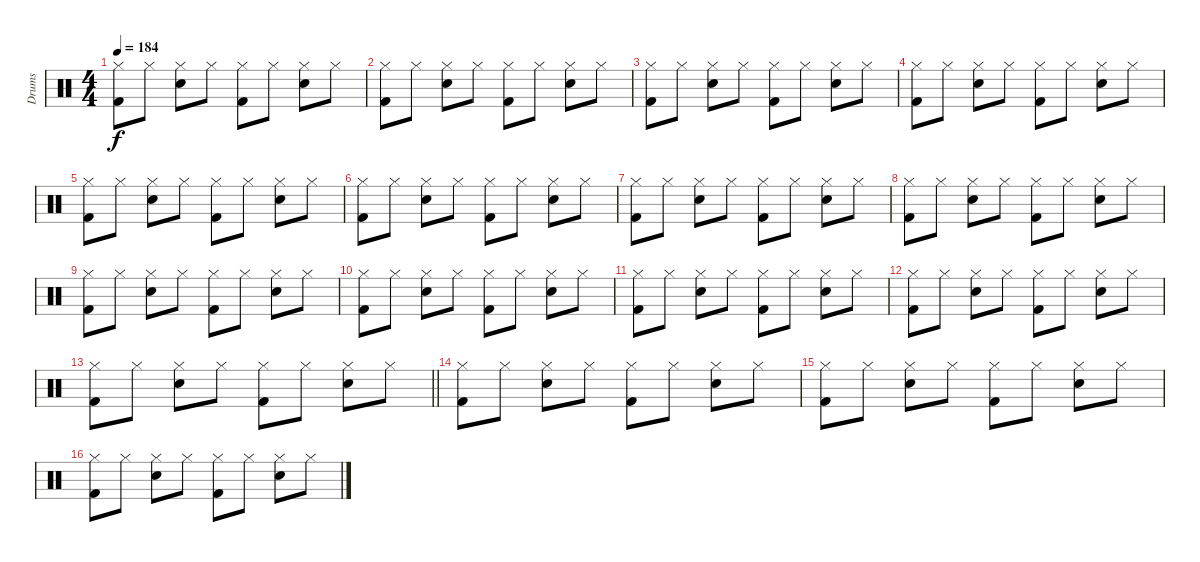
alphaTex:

\track ("Drums" "Drums") {instrument percussion}
\staff {score}
\articulation defaults
\ts (4 4)
\tempo 184
\clef neutral
\ks c
("Hi-Hat (closed)" "Kick (hit) 2").8{dy f} "Hi-Hat (closed)".8 ("Hi-Hat (closed)" "Snare (hit) 2").8 "Hi-Hat (closed)".8 ("Hi-Hat (closed)" "Kick (hit) 2").8 "Hi-Hat (closed)".8 ("Hi-Hat (closed)" "Snare (hit) 2").8 "Hi-Hat (closed)".8 |
("Hi-Hat (closed)" "Kick (hit) 2").8 "Hi-Hat (closed)".8 ("Hi-Hat (closed)" "Snare (hit) 2").8 "Hi-Hat (closed)".8 ("Hi-Hat (closed)" "Kick (hit) 2").8 "Hi-Hat (closed)".8 ("Hi-Hat (closed)" "Snare (hit) 2").8 "Hi-Hat (closed)".8 |
("Hi-Hat (closed)" "Kick (hit) 2").8 "Hi-Hat (closed)".8 ("Hi-Hat (closed)" "Snare (hit) 2").8 "Hi-Hat (closed)".8 ("Hi-Hat (closed)" "Kick (hit) 2").8 "Hi-Hat (closed)".8 ("Hi-Hat (closed)" "Snare (hit) 2").8 "Hi-Hat (closed)".8 |
("Hi-Hat (closed)" "Kick (hit) 2").8 "Hi-Hat (closed)".8 ("Hi-Hat (closed)" "Snare (hit) 2").8 "Hi-Hat (closed)".8 ("Hi-Hat (closed)" "Kick (hit) 2").8 "Hi-Hat (closed)".8 ("Hi-Hat (closed)" "Snare (hit) 2").8 "Hi-Hat (closed)".8 |
("Hi-Hat (closed)" "Kick (hit) 2").8 "Hi-Hat (closed)".8 ("Hi-Hat (closed)" "Snare (hit) 2").8 "Hi-Hat (closed)".8 ("Hi-Hat (closed)" "Kick (hit) 2").8 "Hi-Hat (closed)".8 ("Hi-Hat (closed)" "Snare (hit) 2").8 "Hi-Hat (closed)".8 |
("Hi-Hat (closed)" "Kick (hit) 2").8 "Hi-Hat (closed)".8 ("Hi-Hat (closed)" "Snare (hit) 2").8 "Hi-Hat (closed)".8 ("Hi-Hat (closed)" "Kick (hit) 2").8 "Hi-Hat (closed)".8 ("Hi-Hat (closed)" "Snare (hit) 2").8 "Hi-Hat (closed)".8 |
("Hi-Hat (closed)" "Kick (hit) 2").8 "Hi-Hat (closed)".8 ("Hi-Hat (closed)" "Snare (hit) 2").8 "Hi-Hat (closed)".8 ("Hi-Hat (closed)" "Kick (hit) 2").8 "Hi-Hat (closed)".8 ("Hi-Hat (closed)" "Snare (hit) 2").8 "Hi-Hat (closed)".8 |
("Hi-Hat (closed)" "Kick (hit) 2").8 "Hi-Hat (closed)".8 ("Hi-Hat (closed)" "Snare (hit) 2").8 "Hi-Hat (closed)".8 ("Hi-Hat (closed)" "Kick (hit) 2").8 "Hi-Hat (closed)".8 ("Hi-Hat (closed)" "Snare (hit) 2").8 "Hi-Hat (closed)".8 |
("Hi-Hat (closed)" "Kick (hit) 2").8 "Hi-Hat (closed)".8 ("Hi-Hat (closed)" "Snare (hit) 2").8 "Hi-Hat (closed)".8 ("Hi-Hat (closed)" "Kick (hit) 2").8 "Hi-Hat (closed)".8 ("Hi-Hat (closed)" "Snare (hit) 2").8 "Hi-Hat (closed)".8 |
("Hi-Hat (closed)" "Kick (hit) 2").8 "Hi-Hat (closed)".8 ("Hi-Hat (closed)" "Snare (hit) 2").8 "Hi-Hat (closed)".8 ("Hi-Hat (closed)" "Kick (hit) 2").8 "Hi-Hat (closed)".8 ("Hi-Hat (closed)" "Snare (hit) 2").8 "Hi-Hat (closed)".8 |
("Hi-Hat (closed)" "Kick (hit) 2").8 "Hi-Hat (closed)".8 ("Hi-Hat (closed)" "Snare (hit) 2").8 "Hi-Hat (closed)".8 ("Hi-Hat (closed)" "Kick (hit) 2").8 "Hi-Hat (closed)".8 ("Hi-Hat (closed)" "Snare (hit) 2").8 "Hi-Hat (closed)".8 |
("Hi-Hat (closed)" "Kick (hit) 2").8 "Hi-Hat (closed)".8 ("Hi-Hat (closed)" "Snare (hit) 2").8 "Hi-Hat (closed)".8 ("Hi-Hat (closed)" "Kick (hit) 2").8 "Hi-Hat (closed)".8 ("Hi-Hat (closed)" "Snare (hit) 2").8 "Hi-Hat (closed)".8 |
\barLineRight lightlight
("Hi-Hat (closed)" "Kick (hit) 2").8 "Hi-Hat (closed)".8 ("Hi-Hat (closed)" "Snare (hit) 2").8 "Hi-Hat (closed)".8 ("Hi-Hat (closed)" "Kick (hit) 2").8 "Hi-Hat (closed)".8 ("Hi-Hat (closed)" "Snare (hit) 2").8 "Hi-Hat (closed)".8 |
("Hi-Hat (closed)" "Kick (hit) 2").8 "Hi-Hat (closed)".8 ("Hi-Hat (closed)" "Snare (hit) 2").8 "Hi-Hat (closed)".8 ("Hi-Hat (closed)" "Kick (hit) 2").8 "Hi-Hat (closed)".8 ("Hi-Hat (closed)" "Snare (hit) 2").8 "Hi-Hat (closed)".8 |
("Hi-Hat (closed)" "Kick (hit) 2").8 "Hi-Hat (closed)".8 ("Hi-Hat (closed)" "Snare (hit) 2").8 "Hi-Hat (closed)".8 ("Hi-Hat (closed)" "Kick (hit) 2").8 "Hi-Hat (closed)".8 ("Hi-Hat (closed)" "Snare (hit) 2").8 "Hi-Hat (closed)".8 |
("Hi-Hat (closed)" "Kick (hit) 2").8 "Hi-Hat (closed)".8 ("Hi-Hat (closed)" "Snare (hit) 2").8 "Hi-Hat (closed)".8 ("Hi-Hat (closed)" "Kick (hit) 2").8 "Hi-Hat (closed)".8 ("Hi-Hat (closed)" "Snare (hit) 2").8 "Hi-Hat (closed)".8
